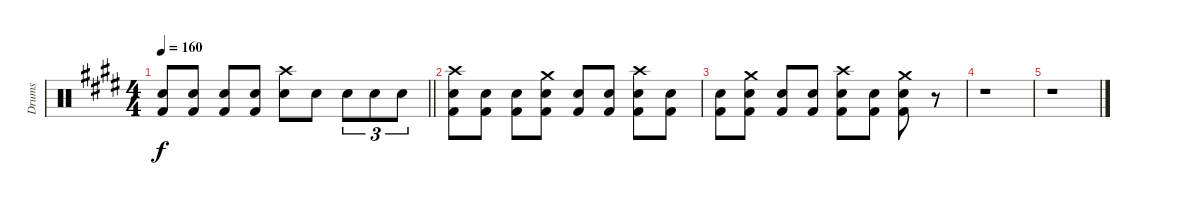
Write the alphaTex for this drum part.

\track ("Drums" "Drums") {instrument percussion}
\staff {score}
\articulation defaults
\ts (4 4)
\tempo 160
\clef neutral
\barLineRight lightlight
\ks e
("Kick (hit) 2" "Snare (hit) 2").8{dy f} ("Kick (hit) 2" "Snare (hit) 2").8 ("Kick (hit) 2" "Snare (hit) 2").8 ("Kick (hit) 2" "Snare (hit) 2").8 ("Crash high (hit)" "Snare (hit) 2").8 "Snare (hit) 2".8 "Snare (hit) 2".8{tu (3 2)} "Snare (hit) 2".8{tu (3 2)} "Snare (hit) 2".8{tu (3 2)} |
("Kick (hit) 2" "Crash high (hit)" "Snare (hit) 2").8 ("Kick (hit) 2" "Snare (hit) 2").8 ("Kick (hit) 2" "Snare (hit) 2").8 ("Kick (hit) 2" "Crash medium (hit)" "Snare (hit) 2").8 ("Kick (hit) 2" "Snare (hit) 2").8 ("Kick (hit) 2" "Snare (hit) 2").8 ("Kick (hit) 2" "Crash high (hit)" "Snare (hit) 2").8 ("Kick (hit) 2" "Snare (hit) 2").8 |
("Kick (hit) 2" "Snare (hit) 2").8 ("Kick (hit) 2" "Crash medium (hit)" "Snare (hit) 2").8 ("Kick (hit) 2" "Snare (hit) 2").8 ("Kick (hit) 2" "Snare (hit) 2").8 ("Kick (hit) 2" "Crash high (hit)" "Snare (hit) 2").8 ("Kick (hit) 2" "Snare (hit) 2").8 ("Kick (hit) 2" "Crash medium (hit)" "Snare (hit) 2").8 r.8 |
r.1 |
r.1
